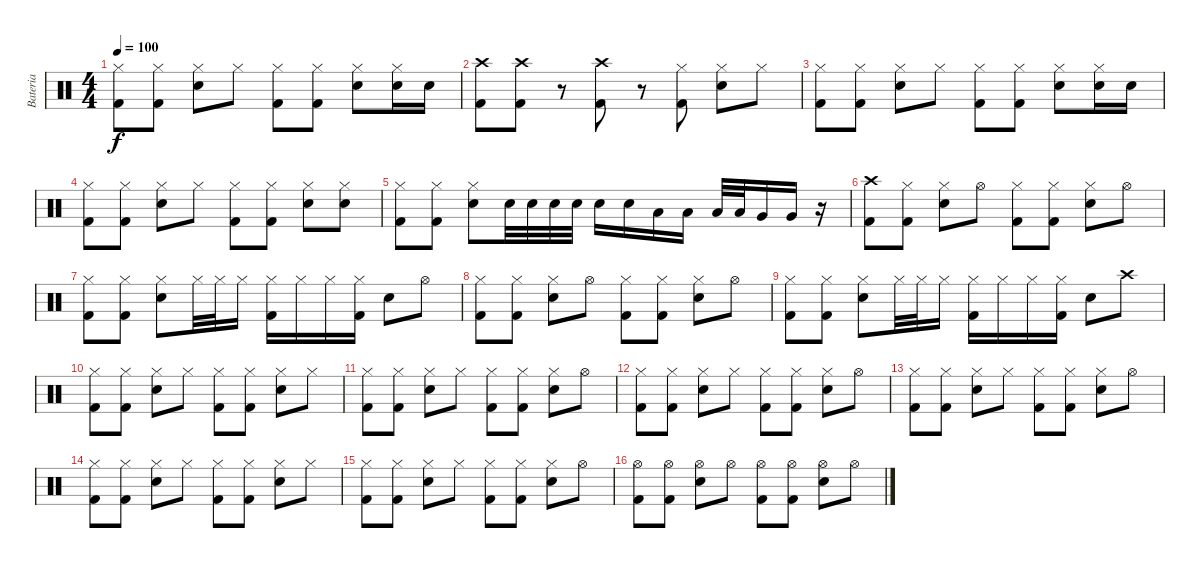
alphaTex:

\track ("Bateria" "Bateria") {instrument percussion}
\staff {score}
\articulation defaults
\ts (4 4)
\tempo 100
\clef neutral
\ks c
("Hi-Hat (closed)" "Kick (hit) 2").8{dy f} ("Hi-Hat (closed)" "Kick (hit) 2").8 ("Hi-Hat (closed)" "Snare (hit) 2").8 "Hi-Hat (closed)".8 ("Hi-Hat (closed)" "Kick (hit) 2").8 ("Hi-Hat (closed)" "Kick (hit) 2").8 ("Hi-Hat (closed)" "Snare (hit) 2").8 ("Hi-Hat (closed)" "Snare (hit) 2").16 "Snare (hit) 2".16 |
("Crash high (hit)" "Kick (hit) 2").8 ("Crash high (hit)" "Kick (hit) 2").8 r.8 ("Crash high (hit)" "Kick (hit) 2").8 r.8 ("Hi-Hat (closed)" "Kick (hit) 2").8 ("Hi-Hat (closed)" "Snare (hit) 2").8 "Hi-Hat (closed)".8 |
("Hi-Hat (closed)" "Kick (hit) 2").8 ("Hi-Hat (closed)" "Kick (hit) 2").8 ("Hi-Hat (closed)" "Snare (hit) 2").8 "Hi-Hat (closed)".8 ("Hi-Hat (closed)" "Kick (hit) 2").8 ("Hi-Hat (closed)" "Kick (hit) 2").8 ("Hi-Hat (closed)" "Snare (hit) 2").8 ("Hi-Hat (closed)" "Snare (hit) 2").16 "Snare (hit) 2".16 |
("Hi-Hat (closed)" "Kick (hit) 2").8 ("Hi-Hat (closed)" "Kick (hit) 2").8 ("Hi-Hat (closed)" "Snare (hit) 2").8 "Hi-Hat (closed)".8 ("Hi-Hat (closed)" "Kick (hit) 2").8 ("Hi-Hat (closed)" "Kick (hit) 2").8 ("Hi-Hat (closed)" "Snare (hit) 2").8 ("Hi-Hat (closed)" "Snare (hit) 2").8 |
("Hi-Hat (closed)" "Kick (hit) 2").8 ("Hi-Hat (closed)" "Kick (hit) 2").8 ("Hi-Hat (closed)" "Snare (hit) 2").8 "Snare (hit) 2".32 "Snare (hit) 2".32 "Snare (hit) 2".32 "Snare (hit) 2".32 "Snare (hit) 2".16 "Snare (hit) 2".16 "Low Tom (hit)".16 "Low Tom (hit)".16 "Low Tom (hit)".32 "Low Tom (hit)".32 "Very Low Tom (hit)".16 "Very Low Tom (hit)".16 r.16 |
("Crash high (hit)" "Kick (hit) 2").8 ("Hi-Hat (closed)" "Kick (hit) 2").8 ("Hi-Hat (closed)" "Snare (hit) 2").8 "Hi-Hat (open)".8 ("Hi-Hat (closed)" "Kick (hit) 2").8 ("Hi-Hat (closed)" "Kick (hit) 2").8 ("Hi-Hat (closed)" "Snare (hit) 2").8 "Hi-Hat (open)".8 |
("Hi-Hat (closed)" "Kick (hit) 2").8 ("Hi-Hat (closed)" "Kick (hit) 2").8 ("Hi-Hat (closed)" "Snare (hit) 2").8 "Hi-Hat (closed)".32 "Hi-Hat (closed)".32 "Hi-Hat (closed)".16 ("Hi-Hat (closed)" "Kick (hit) 2").16 "Hi-Hat (closed)".16 "Hi-Hat (closed)".16 ("Hi-Hat (closed)" "Kick (hit) 2").16 "Snare (hit) 2".8 "Hi-Hat (open)".8 |
("Hi-Hat (closed)" "Kick (hit) 2").8 ("Hi-Hat (closed)" "Kick (hit) 2").8 ("Hi-Hat (closed)" "Snare (hit) 2").8 "Hi-Hat (open)".8 ("Hi-Hat (closed)" "Kick (hit) 2").8 ("Hi-Hat (closed)" "Kick (hit) 2").8 ("Hi-Hat (closed)" "Snare (hit) 2").8 "Hi-Hat (open)".8 |
("Hi-Hat (closed)" "Kick (hit) 2").8 ("Hi-Hat (closed)" "Kick (hit) 2").8 ("Hi-Hat (closed)" "Snare (hit) 2").8 "Hi-Hat (closed)".32 "Hi-Hat (closed)".32 "Hi-Hat (closed)".16 ("Hi-Hat (closed)" "Kick (hit) 2").16 "Hi-Hat (closed)".16 "Hi-Hat (closed)".16 ("Hi-Hat (closed)" "Kick (hit) 2").16 "Snare (hit) 2".8 "Crash high (hit)".8 |
("Hi-Hat (closed)" "Kick (hit) 2").8 ("Hi-Hat (closed)" "Kick (hit) 2").8 ("Hi-Hat (closed)" "Snare (hit) 2").8 "Hi-Hat (closed)".8 ("Hi-Hat (closed)" "Kick (hit) 2").8 ("Hi-Hat (closed)" "Kick (hit) 2").8 ("Hi-Hat (closed)" "Snare (hit) 2").8 "Hi-Hat (closed)".8 |
("Hi-Hat (closed)" "Kick (hit) 2").8 ("Hi-Hat (closed)" "Kick (hit) 2").8 ("Hi-Hat (closed)" "Snare (hit) 2").8 "Hi-Hat (closed)".8 ("Hi-Hat (closed)" "Kick (hit) 2").8 ("Hi-Hat (closed)" "Kick (hit) 2").8 ("Hi-Hat (closed)" "Snare (hit) 2").8 "Hi-Hat (open)".8 |
("Hi-Hat (closed)" "Kick (hit) 2").8 ("Hi-Hat (closed)" "Kick (hit) 2").8 ("Hi-Hat (closed)" "Snare (hit) 2").8 "Hi-Hat (closed)".8 ("Hi-Hat (closed)" "Kick (hit) 2").8 ("Hi-Hat (closed)" "Kick (hit) 2").8 ("Hi-Hat (closed)" "Snare (hit) 2").8 "Hi-Hat (open)".8 |
("Hi-Hat (closed)" "Kick (hit) 2").8 ("Hi-Hat (closed)" "Kick (hit) 2").8 ("Hi-Hat (closed)" "Snare (hit) 2").8 "Hi-Hat (closed)".8 ("Hi-Hat (closed)" "Kick (hit) 2").8 ("Hi-Hat (closed)" "Kick (hit) 2").8 ("Hi-Hat (closed)" "Snare (hit) 2").8 "Hi-Hat (open)".8 |
("Hi-Hat (closed)" "Kick (hit) 2").8 ("Hi-Hat (closed)" "Kick (hit) 2").8 ("Hi-Hat (closed)" "Snare (hit) 2").8 "Hi-Hat (closed)".8 ("Hi-Hat (closed)" "Kick (hit) 2").8 ("Hi-Hat (closed)" "Kick (hit) 2").8 ("Hi-Hat (closed)" "Snare (hit) 2").8 "Hi-Hat (closed)".8 |
("Hi-Hat (closed)" "Kick (hit) 2").8 ("Hi-Hat (closed)" "Kick (hit) 2").8 ("Hi-Hat (closed)" "Snare (hit) 2").8 "Hi-Hat (closed)".8 ("Hi-Hat (closed)" "Kick (hit) 2").8 ("Hi-Hat (closed)" "Kick (hit) 2").8 ("Hi-Hat (closed)" "Snare (hit) 2").8 "Hi-Hat (open)".8 |
("Hi-Hat (open)" "Kick (hit) 2").8 ("Hi-Hat (open)" "Kick (hit) 2").8 ("Hi-Hat (open)" "Snare (hit) 2").8 "Hi-Hat (open)".8 ("Hi-Hat (open)" "Kick (hit) 2").8 ("Hi-Hat (open)" "Kick (hit) 2").8 ("Hi-Hat (open)" "Snare (hit) 2").8 "Hi-Hat (open)".8
